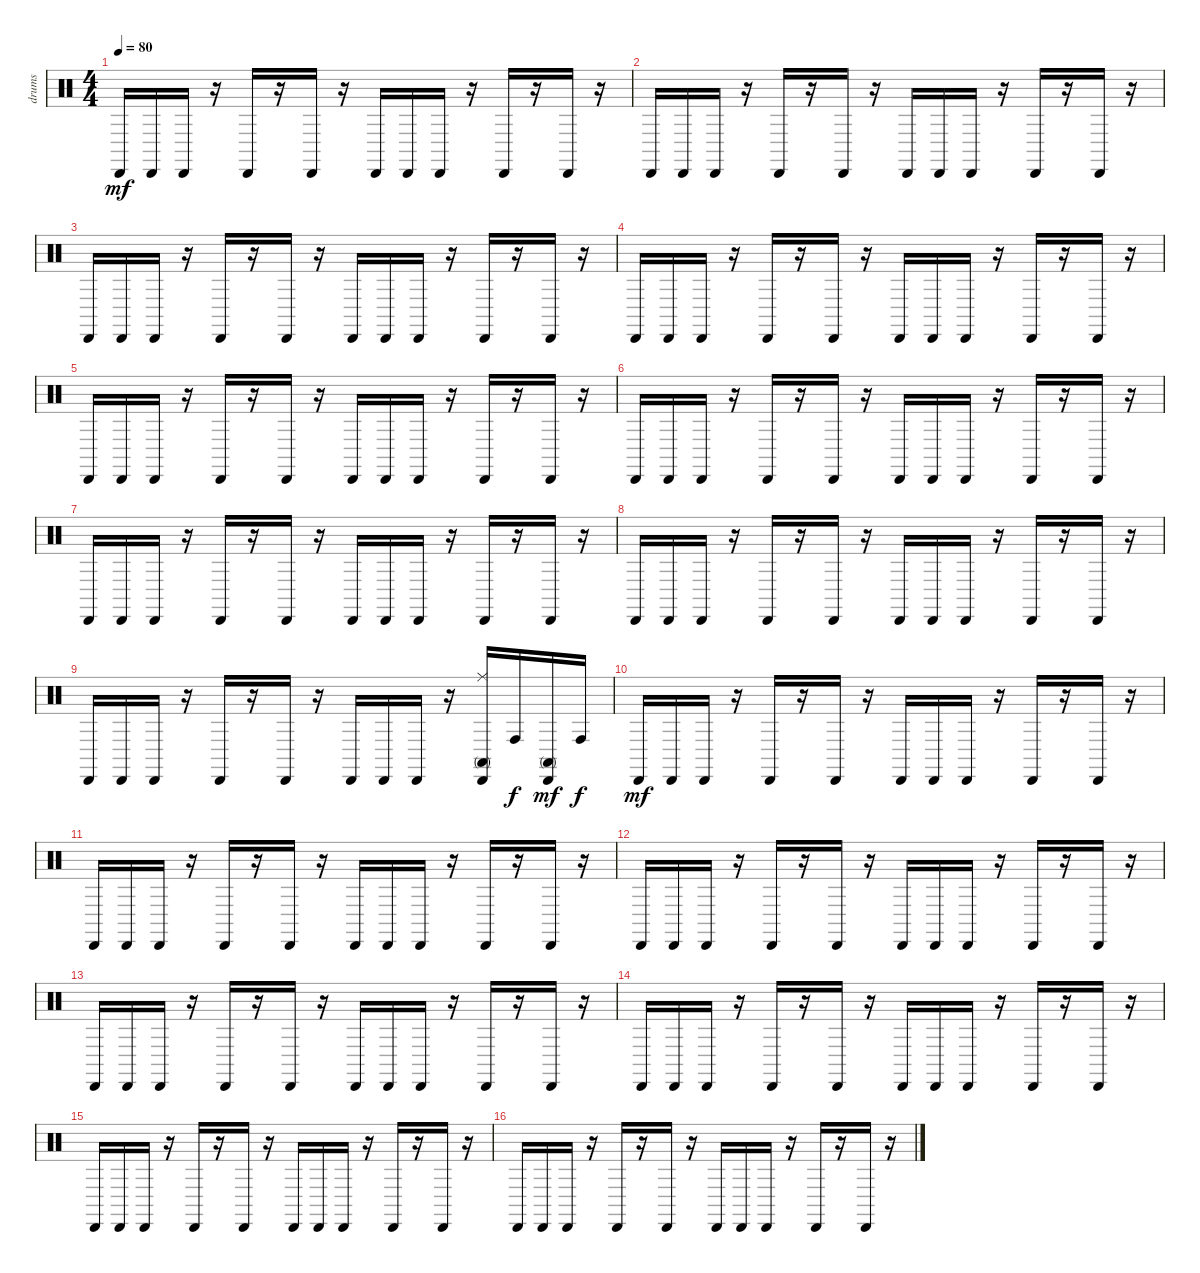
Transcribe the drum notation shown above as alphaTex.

\track ("drums" "drums") {instrument percussion}
\staff {score}
\articulation defaults
\ts (4 4)
\tempo 80
\clef neutral
\ks c "Cabasa (hit)".16{dy mf} "Cabasa (hit)".16 "Cabasa (hit)".16
r.16 "Cabasa (hit)".16 r.16 "Cabasa (hit)".16 r.16 "Cabasa (hit)".16 "Cabasa (hit)".16 "Cabasa (hit)".16 r.16 "Cabasa (hit)".16 r.16 "Cabasa (hit)".16 r.16 |
"Cabasa (hit)".16 "Cabasa (hit)".16 "Cabasa (hit)".16 r.16 "Cabasa (hit)".16 r.16 "Cabasa (hit)".16 r.16 "Cabasa (hit)".16 "Cabasa (hit)".16 "Cabasa (hit)".16 r.16 "Cabasa (hit)".16 r.16 "Cabasa (hit)".16 r.16 |
"Cabasa (hit)".16 "Cabasa (hit)".16 "Cabasa (hit)".16 r.16 "Cabasa (hit)".16 r.16 "Cabasa (hit)".16 r.16 "Cabasa (hit)".16 "Cabasa (hit)".16 "Cabasa (hit)".16 r.16 "Cabasa (hit)".16 r.16 "Cabasa (hit)".16 r.16 |
"Cabasa (hit)".16 "Cabasa (hit)".16 "Cabasa (hit)".16 r.16 "Cabasa (hit)".16 r.16 "Cabasa (hit)".16 r.16 "Cabasa (hit)".16 "Cabasa (hit)".16 "Cabasa (hit)".16 r.16 "Cabasa (hit)".16 r.16 "Cabasa (hit)".16 r.16 |
"Cabasa (hit)".16 "Cabasa (hit)".16 "Cabasa (hit)".16 r.16 "Cabasa (hit)".16 r.16 "Cabasa (hit)".16 r.16 "Cabasa (hit)".16 "Cabasa (hit)".16 "Cabasa (hit)".16 r.16 "Cabasa (hit)".16 r.16 "Cabasa (hit)".16 r.16 |
"Cabasa (hit)".16 "Cabasa (hit)".16 "Cabasa (hit)".16 r.16 "Cabasa (hit)".16 r.16 "Cabasa (hit)".16 r.16 "Cabasa (hit)".16 "Cabasa (hit)".16 "Cabasa (hit)".16 r.16 "Cabasa (hit)".16 r.16 "Cabasa (hit)".16 r.16 |
"Cabasa (hit)".16 "Cabasa (hit)".16 "Cabasa (hit)".16 r.16 "Cabasa (hit)".16 r.16 "Cabasa (hit)".16 r.16 "Cabasa (hit)".16 "Cabasa (hit)".16 "Cabasa (hit)".16 r.16 "Cabasa (hit)".16 r.16 "Cabasa (hit)".16 r.16 |
"Cabasa (hit)".16 "Cabasa (hit)".16 "Cabasa (hit)".16 r.16 "Cabasa (hit)".16 r.16 "Cabasa (hit)".16 r.16 "Cabasa (hit)".16 "Cabasa (hit)".16 "Cabasa (hit)".16 r.16 "Cabasa (hit)".16 r.16 "Cabasa (hit)".16 r.16 |
"Cabasa (hit)".16 "Cabasa (hit)".16 "Cabasa (hit)".16 r.16 "Cabasa (hit)".16 r.16 "Cabasa (hit)".16 r.16 "Cabasa (hit)".16 "Cabasa (hit)".16 "Cabasa (hit)".16 r.16 ("Ride (middle)" "Conga high (mute)" "Cabasa (hit)").16 "Conga high (hit)".16{dy f} ("Conga high (mute)" "Cabasa (hit)").16{dy mf} "Conga high (hit)".16{dy f} |
"Cabasa (hit)".16{dy mf} "Cabasa (hit)".16 "Cabasa (hit)".16 r.16 "Cabasa (hit)".16 r.16 "Cabasa (hit)".16 r.16 "Cabasa (hit)".16 "Cabasa (hit)".16 "Cabasa (hit)".16 r.16 "Cabasa (hit)".16 r.16 "Cabasa (hit)".16 r.16 |
"Cabasa (hit)".16 "Cabasa (hit)".16 "Cabasa (hit)".16 r.16 "Cabasa (hit)".16 r.16 "Cabasa (hit)".16 r.16 "Cabasa (hit)".16 "Cabasa (hit)".16 "Cabasa (hit)".16 r.16 "Cabasa (hit)".16 r.16 "Cabasa (hit)".16 r.16 |
"Cabasa (hit)".16 "Cabasa (hit)".16 "Cabasa (hit)".16 r.16 "Cabasa (hit)".16 r.16 "Cabasa (hit)".16 r.16 "Cabasa (hit)".16 "Cabasa (hit)".16 "Cabasa (hit)".16 r.16 "Cabasa (hit)".16 r.16 "Cabasa (hit)".16 r.16 |
"Cabasa (hit)".16 "Cabasa (hit)".16 "Cabasa (hit)".16 r.16 "Cabasa (hit)".16 r.16 "Cabasa (hit)".16 r.16 "Cabasa (hit)".16 "Cabasa (hit)".16 "Cabasa (hit)".16 r.16 "Cabasa (hit)".16 r.16 "Cabasa (hit)".16 r.16 |
"Cabasa (hit)".16 "Cabasa (hit)".16 "Cabasa (hit)".16 r.16 "Cabasa (hit)".16 r.16 "Cabasa (hit)".16 r.16 "Cabasa (hit)".16 "Cabasa (hit)".16 "Cabasa (hit)".16 r.16 "Cabasa (hit)".16 r.16 "Cabasa (hit)".16 r.16 |
"Cabasa (hit)".16 "Cabasa (hit)".16 "Cabasa (hit)".16 r.16 "Cabasa (hit)".16 r.16 "Cabasa (hit)".16 r.16 "Cabasa (hit)".16 "Cabasa (hit)".16 "Cabasa (hit)".16 r.16 "Cabasa (hit)".16 r.16 "Cabasa (hit)".16 r.16 |
"Cabasa (hit)".16 "Cabasa (hit)".16 "Cabasa (hit)".16 r.16 "Cabasa (hit)".16 r.16 "Cabasa (hit)".16 r.16 "Cabasa (hit)".16 "Cabasa (hit)".16 "Cabasa (hit)".16 r.16 "Cabasa (hit)".16 r.16 "Cabasa (hit)".16 r.16
